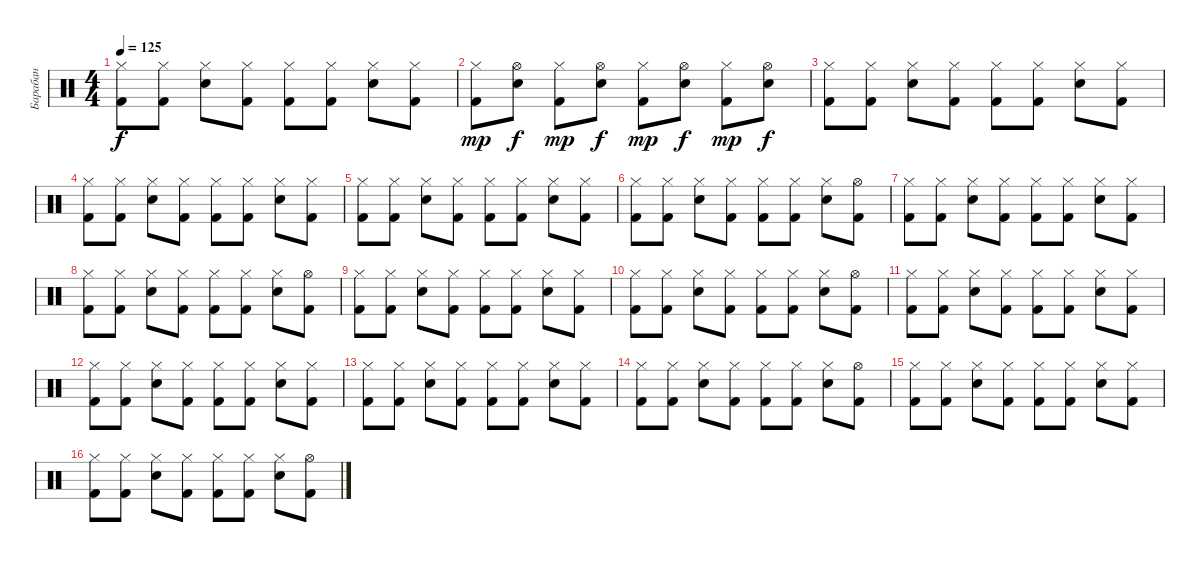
\track ("Барабан" "Барабан") {instrument percussion}
\staff {score}
\articulation defaults
\ts (4 4)
\tempo 125
\clef neutral
\ks c
("Kick (hit) 2" "Hi-Hat (closed)").8{dy f} ("Kick (hit) 2" "Hi-Hat (closed)").8 ("Electric Snare (hit)" "Hi-Hat (closed)").8 ("Kick (hit) 2" "Hi-Hat (closed)").8 ("Kick (hit) 2" "Hi-Hat (closed)").8 ("Kick (hit) 2" "Hi-Hat (closed)").8 ("Electric Snare (hit)" "Hi-Hat (closed)").8 ("Kick (hit) 2" "Hi-Hat (closed)").8 |
("Kick (hit) 2" "Hi-Hat (closed)").8{dy mp} ("Electric Snare (hit)" "Hi-Hat (open)").8{dy f} ("Kick (hit) 2" "Hi-Hat (closed)").8{dy mp} ("Snare (hit) 2" "Hi-Hat (open)").8{dy f} ("Kick (hit) 2" "Hi-Hat (closed)").8{dy mp} ("Electric Snare (hit)" "Hi-Hat (open)").8{dy f} ("Kick (hit) 2" "Hi-Hat (closed)").8{dy mp} ("Snare (hit) 2" "Hi-Hat (open)").8{dy f} |
("Kick (hit) 2" "Hi-Hat (closed)").8 ("Kick (hit) 2" "Hi-Hat (closed)").8 ("Electric Snare (hit)" "Hi-Hat (closed)").8 ("Kick (hit) 2" "Hi-Hat (closed)").8 ("Kick (hit) 2" "Hi-Hat (closed)").8 ("Kick (hit) 2" "Hi-Hat (closed)").8 ("Electric Snare (hit)" "Hi-Hat (closed)").8 ("Kick (hit) 2" "Hi-Hat (closed)").8 |
("Kick (hit) 2" "Hi-Hat (closed)").8 ("Kick (hit) 2" "Hi-Hat (closed)").8 ("Electric Snare (hit)" "Hi-Hat (closed)").8 ("Kick (hit) 2" "Hi-Hat (closed)").8 ("Kick (hit) 2" "Hi-Hat (closed)").8 ("Kick (hit) 2" "Hi-Hat (closed)").8 ("Electric Snare (hit)" "Hi-Hat (closed)").8 ("Kick (hit) 2" "Hi-Hat (closed)").8 |
("Kick (hit) 2" "Hi-Hat (closed)").8 ("Kick (hit) 2" "Hi-Hat (closed)").8 ("Electric Snare (hit)" "Hi-Hat (closed)").8 ("Kick (hit) 2" "Hi-Hat (closed)").8 ("Kick (hit) 2" "Hi-Hat (closed)").8 ("Kick (hit) 2" "Hi-Hat (closed)").8 ("Electric Snare (hit)" "Hi-Hat (closed)").8 ("Kick (hit) 2" "Hi-Hat (closed)").8 |
("Kick (hit) 2" "Hi-Hat (closed)").8 ("Kick (hit) 2" "Hi-Hat (closed)").8 ("Electric Snare (hit)" "Hi-Hat (closed)").8 ("Kick (hit) 2" "Hi-Hat (closed)").8 ("Kick (hit) 2" "Hi-Hat (closed)").8 ("Kick (hit) 2" "Hi-Hat (closed)").8 ("Electric Snare (hit)" "Hi-Hat (closed)").8 ("Kick (hit) 2" "Hi-Hat (open)").8 |
("Kick (hit) 2" "Hi-Hat (closed)").8 ("Kick (hit) 2" "Hi-Hat (closed)").8 ("Electric Snare (hit)" "Hi-Hat (closed)").8 ("Kick (hit) 2" "Hi-Hat (closed)").8 ("Kick (hit) 2" "Hi-Hat (closed)").8 ("Kick (hit) 2" "Hi-Hat (closed)").8 ("Electric Snare (hit)" "Hi-Hat (closed)").8 ("Kick (hit) 2" "Hi-Hat (closed)").8 |
("Kick (hit) 2" "Hi-Hat (closed)").8 ("Kick (hit) 2" "Hi-Hat (closed)").8 ("Electric Snare (hit)" "Hi-Hat (closed)").8 ("Kick (hit) 2" "Hi-Hat (closed)").8 ("Kick (hit) 2" "Hi-Hat (closed)").8 ("Kick (hit) 2" "Hi-Hat (closed)").8 ("Electric Snare (hit)" "Hi-Hat (closed)").8 ("Kick (hit) 2" "Hi-Hat (open)").8 |
("Kick (hit) 2" "Hi-Hat (closed)").8 ("Kick (hit) 2" "Hi-Hat (closed)").8 ("Electric Snare (hit)" "Hi-Hat (closed)").8 ("Kick (hit) 2" "Hi-Hat (closed)").8 ("Kick (hit) 2" "Hi-Hat (closed)").8 ("Kick (hit) 2" "Hi-Hat (closed)").8 ("Electric Snare (hit)" "Hi-Hat (closed)").8 ("Kick (hit) 2" "Hi-Hat (closed)").8 |
("Kick (hit) 2" "Hi-Hat (closed)").8 ("Kick (hit) 2" "Hi-Hat (closed)").8 ("Electric Snare (hit)" "Hi-Hat (closed)").8 ("Kick (hit) 2" "Hi-Hat (closed)").8 ("Kick (hit) 2" "Hi-Hat (closed)").8 ("Kick (hit) 2" "Hi-Hat (closed)").8 ("Electric Snare (hit)" "Hi-Hat (closed)").8 ("Kick (hit) 2" "Hi-Hat (open)").8 |
("Kick (hit) 2" "Hi-Hat (closed)").8 ("Kick (hit) 2" "Hi-Hat (closed)").8 ("Electric Snare (hit)" "Hi-Hat (closed)").8 ("Kick (hit) 2" "Hi-Hat (closed)").8 ("Kick (hit) 2" "Hi-Hat (closed)").8 ("Kick (hit) 2" "Hi-Hat (closed)").8 ("Electric Snare (hit)" "Hi-Hat (closed)").8 ("Kick (hit) 2" "Hi-Hat (closed)").8 |
("Kick (hit) 2" "Hi-Hat (closed)").8 ("Kick (hit) 2" "Hi-Hat (closed)").8 ("Electric Snare (hit)" "Hi-Hat (closed)").8 ("Kick (hit) 2" "Hi-Hat (closed)").8 ("Kick (hit) 2" "Hi-Hat (closed)").8 ("Kick (hit) 2" "Hi-Hat (closed)").8 ("Electric Snare (hit)" "Hi-Hat (closed)").8 ("Kick (hit) 2" "Hi-Hat (closed)").8 |
("Kick (hit) 2" "Hi-Hat (closed)").8 ("Kick (hit) 2" "Hi-Hat (closed)").8 ("Electric Snare (hit)" "Hi-Hat (closed)").8 ("Kick (hit) 2" "Hi-Hat (closed)").8 ("Kick (hit) 2" "Hi-Hat (closed)").8 ("Kick (hit) 2" "Hi-Hat (closed)").8 ("Electric Snare (hit)" "Hi-Hat (closed)").8 ("Kick (hit) 2" "Hi-Hat (closed)").8 |
("Kick (hit) 2" "Hi-Hat (closed)").8 ("Kick (hit) 2" "Hi-Hat (closed)").8 ("Electric Snare (hit)" "Hi-Hat (closed)").8 ("Kick (hit) 2" "Hi-Hat (closed)").8 ("Kick (hit) 2" "Hi-Hat (closed)").8 ("Kick (hit) 2" "Hi-Hat (closed)").8 ("Electric Snare (hit)" "Hi-Hat (closed)").8 ("Kick (hit) 2" "Hi-Hat (open)").8 |
("Kick (hit) 2" "Hi-Hat (closed)").8 ("Kick (hit) 2" "Hi-Hat (closed)").8 ("Electric Snare (hit)" "Hi-Hat (closed)").8 ("Kick (hit) 2" "Hi-Hat (closed)").8 ("Kick (hit) 2" "Hi-Hat (closed)").8 ("Kick (hit) 2" "Hi-Hat (closed)").8 ("Electric Snare (hit)" "Hi-Hat (closed)").8 ("Kick (hit) 2" "Hi-Hat (closed)").8 |
("Kick (hit) 2" "Hi-Hat (closed)").8 ("Kick (hit) 2" "Hi-Hat (closed)").8 ("Electric Snare (hit)" "Hi-Hat (closed)").8 ("Kick (hit) 2" "Hi-Hat (closed)").8 ("Kick (hit) 2" "Hi-Hat (closed)").8 ("Kick (hit) 2" "Hi-Hat (closed)").8 ("Electric Snare (hit)" "Hi-Hat (closed)").8 ("Kick (hit) 2" "Hi-Hat (open)").8
